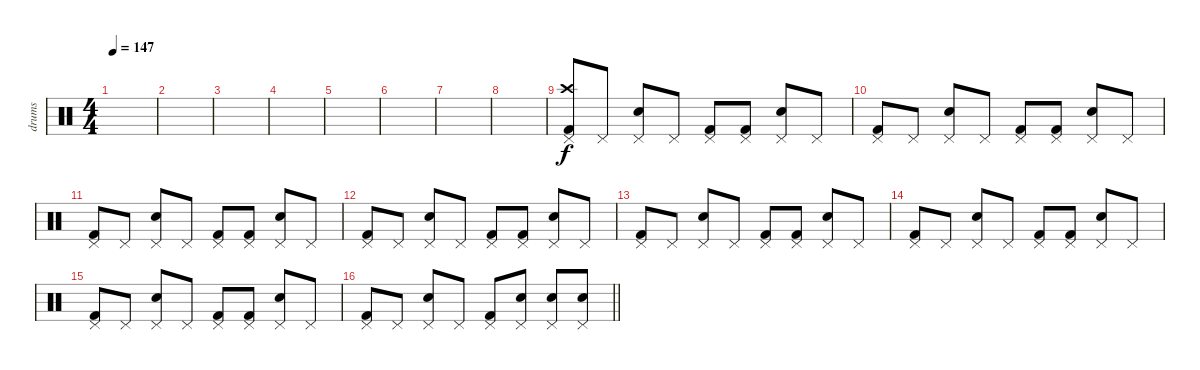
\track ("drums" "drums") {instrument percussion}
\staff {score}
\articulation defaults
\ts (4 4)
\tempo 147
\clef neutral
\ks c
|
|
|
|
|
|
|
|
("Kick (hit) 2" "Crash high (hit)" "Pedal Hi-Hat (hit)").8 "Pedal Hi-Hat (hit)".8 ("Snare (hit) 2" "Pedal Hi-Hat (hit)").8 "Pedal Hi-Hat (hit)".8 ("Kick (hit) 2" "Pedal Hi-Hat (hit)").8 ("Kick (hit) 2" "Pedal Hi-Hat (hit)").8 ("Snare (hit) 2" "Pedal Hi-Hat (hit)").8 "Pedal Hi-Hat (hit)".8 |
("Kick (hit) 2" "Pedal Hi-Hat (hit)").8 "Pedal Hi-Hat (hit)".8 ("Snare (hit) 2" "Pedal Hi-Hat (hit)").8 "Pedal Hi-Hat (hit)".8 ("Kick (hit) 2" "Pedal Hi-Hat (hit)").8 ("Kick (hit) 2" "Pedal Hi-Hat (hit)").8 ("Snare (hit) 2" "Pedal Hi-Hat (hit)").8 "Pedal Hi-Hat (hit)".8 |
("Kick (hit) 2" "Pedal Hi-Hat (hit)").8 "Pedal Hi-Hat (hit)".8 ("Snare (hit) 2" "Pedal Hi-Hat (hit)").8 "Pedal Hi-Hat (hit)".8 ("Kick (hit) 2" "Pedal Hi-Hat (hit)").8 ("Kick (hit) 2" "Pedal Hi-Hat (hit)").8 ("Snare (hit) 2" "Pedal Hi-Hat (hit)").8 "Pedal Hi-Hat (hit)".8 |
("Kick (hit) 2" "Pedal Hi-Hat (hit)").8 "Pedal Hi-Hat (hit)".8 ("Snare (hit) 2" "Pedal Hi-Hat (hit)").8 "Pedal Hi-Hat (hit)".8 ("Kick (hit) 2" "Pedal Hi-Hat (hit)").8 ("Kick (hit) 2" "Pedal Hi-Hat (hit)").8 ("Snare (hit) 2" "Pedal Hi-Hat (hit)").8 "Pedal Hi-Hat (hit)".8 |
("Kick (hit) 2" "Pedal Hi-Hat (hit)").8 "Pedal Hi-Hat (hit)".8 ("Snare (hit) 2" "Pedal Hi-Hat (hit)").8 "Pedal Hi-Hat (hit)".8 ("Kick (hit) 2" "Pedal Hi-Hat (hit)").8 ("Kick (hit) 2" "Pedal Hi-Hat (hit)").8 ("Snare (hit) 2" "Pedal Hi-Hat (hit)").8 "Pedal Hi-Hat (hit)".8 |
("Kick (hit) 2" "Pedal Hi-Hat (hit)").8 "Pedal Hi-Hat (hit)".8 ("Snare (hit) 2" "Pedal Hi-Hat (hit)").8 "Pedal Hi-Hat (hit)".8 ("Kick (hit) 2" "Pedal Hi-Hat (hit)").8 ("Kick (hit) 2" "Pedal Hi-Hat (hit)").8 ("Snare (hit) 2" "Pedal Hi-Hat (hit)").8 "Pedal Hi-Hat (hit)".8 |
("Kick (hit) 2" "Pedal Hi-Hat (hit)").8 "Pedal Hi-Hat (hit)".8 ("Snare (hit) 2" "Pedal Hi-Hat (hit)").8 "Pedal Hi-Hat (hit)".8 ("Kick (hit) 2" "Pedal Hi-Hat (hit)").8 ("Kick (hit) 2" "Pedal Hi-Hat (hit)").8 ("Snare (hit) 2" "Pedal Hi-Hat (hit)").8 "Pedal Hi-Hat (hit)".8 |
\barLineRight lightlight
("Kick (hit) 2" "Pedal Hi-Hat (hit)").8 "Pedal Hi-Hat (hit)".8 ("Snare (hit) 2" "Pedal Hi-Hat (hit)").8 "Pedal Hi-Hat (hit)".8 ("Kick (hit) 2" "Pedal Hi-Hat (hit)").8 ("Snare (hit) 2" "Pedal Hi-Hat (hit)").8 ("Snare (hit) 2" "Pedal Hi-Hat (hit)").8 ("Snare (hit) 2" "Pedal Hi-Hat (hit)").8
